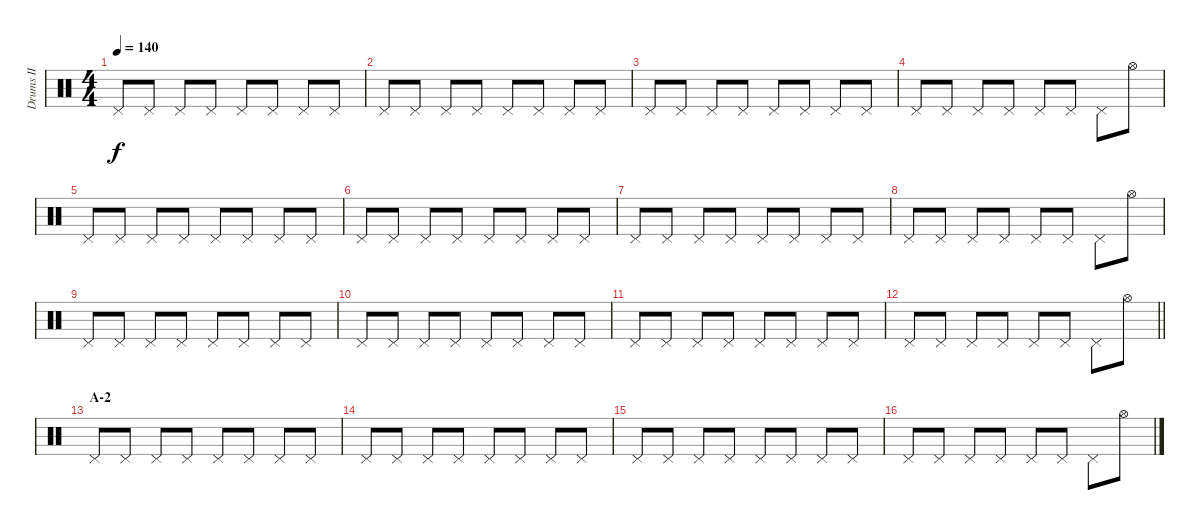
\track ("Drums II" "Drums II") {instrument percussion}
\staff {score}
\articulation defaults
\ts (4 4)
\tempo 140
\clef neutral
\ks c "Pedal Hi-Hat (hit)".8{dy f} "Pedal Hi-Hat (hit)".8 "Pedal Hi-Hat (hit)".8 "Pedal Hi-Hat (hit)".8 "Pedal Hi-Hat (hit)".8 "Pedal Hi-Hat (hit)".8 "Pedal Hi-Hat (hit)".8 "Pedal Hi-Hat (hit)".8
|
"Pedal Hi-Hat (hit)".8 "Pedal Hi-Hat (hit)".8 "Pedal Hi-Hat (hit)".8 "Pedal Hi-Hat (hit)".8 "Pedal Hi-Hat (hit)".8 "Pedal Hi-Hat (hit)".8 "Pedal Hi-Hat (hit)".8 "Pedal Hi-Hat (hit)".8 |
"Pedal Hi-Hat (hit)".8 "Pedal Hi-Hat (hit)".8 "Pedal Hi-Hat (hit)".8 "Pedal Hi-Hat (hit)".8 "Pedal Hi-Hat (hit)".8 "Pedal Hi-Hat (hit)".8 "Pedal Hi-Hat (hit)".8 "Pedal Hi-Hat (hit)".8 |
"Pedal Hi-Hat (hit)".8 "Pedal Hi-Hat (hit)".8 "Pedal Hi-Hat (hit)".8 "Pedal Hi-Hat (hit)".8 "Pedal Hi-Hat (hit)".8 "Pedal Hi-Hat (hit)".8 "Pedal Hi-Hat (hit)".8 "Hi-Hat (open)".8 |
"Pedal Hi-Hat (hit)".8 "Pedal Hi-Hat (hit)".8 "Pedal Hi-Hat (hit)".8 "Pedal Hi-Hat (hit)".8 "Pedal Hi-Hat (hit)".8 "Pedal Hi-Hat (hit)".8 "Pedal Hi-Hat (hit)".8 "Pedal Hi-Hat (hit)".8 |
"Pedal Hi-Hat (hit)".8 "Pedal Hi-Hat (hit)".8 "Pedal Hi-Hat (hit)".8 "Pedal Hi-Hat (hit)".8 "Pedal Hi-Hat (hit)".8 "Pedal Hi-Hat (hit)".8 "Pedal Hi-Hat (hit)".8 "Pedal Hi-Hat (hit)".8 |
"Pedal Hi-Hat (hit)".8 "Pedal Hi-Hat (hit)".8 "Pedal Hi-Hat (hit)".8 "Pedal Hi-Hat (hit)".8 "Pedal Hi-Hat (hit)".8 "Pedal Hi-Hat (hit)".8 "Pedal Hi-Hat (hit)".8 "Pedal Hi-Hat (hit)".8 |
"Pedal Hi-Hat (hit)".8 "Pedal Hi-Hat (hit)".8 "Pedal Hi-Hat (hit)".8 "Pedal Hi-Hat (hit)".8 "Pedal Hi-Hat (hit)".8 "Pedal Hi-Hat (hit)".8 "Pedal Hi-Hat (hit)".8 "Hi-Hat (open)".8 |
"Pedal Hi-Hat (hit)".8 "Pedal Hi-Hat (hit)".8 "Pedal Hi-Hat (hit)".8 "Pedal Hi-Hat (hit)".8 "Pedal Hi-Hat (hit)".8 "Pedal Hi-Hat (hit)".8 "Pedal Hi-Hat (hit)".8 "Pedal Hi-Hat (hit)".8 |
"Pedal Hi-Hat (hit)".8 "Pedal Hi-Hat (hit)".8 "Pedal Hi-Hat (hit)".8 "Pedal Hi-Hat (hit)".8 "Pedal Hi-Hat (hit)".8 "Pedal Hi-Hat (hit)".8 "Pedal Hi-Hat (hit)".8 "Pedal Hi-Hat (hit)".8 |
"Pedal Hi-Hat (hit)".8 "Pedal Hi-Hat (hit)".8 "Pedal Hi-Hat (hit)".8 "Pedal Hi-Hat (hit)".8 "Pedal Hi-Hat (hit)".8 "Pedal Hi-Hat (hit)".8 "Pedal Hi-Hat (hit)".8 "Pedal Hi-Hat (hit)".8 |
\barLineRight lightlight "Pedal Hi-Hat (hit)".8 "Pedal Hi-Hat (hit)".8 "Pedal Hi-Hat (hit)".8 "Pedal Hi-Hat (hit)".8 "Pedal Hi-Hat (hit)".8 "Pedal Hi-Hat (hit)".8 "Pedal Hi-Hat (hit)".8 "Hi-Hat (open)".8
|
\section ("" "A-2")
"Pedal Hi-Hat (hit)".8 "Pedal Hi-Hat (hit)".8 "Pedal Hi-Hat (hit)".8 "Pedal Hi-Hat (hit)".8 "Pedal Hi-Hat (hit)".8 "Pedal Hi-Hat (hit)".8 "Pedal Hi-Hat (hit)".8 "Pedal Hi-Hat (hit)".8 |
"Pedal Hi-Hat (hit)".8 "Pedal Hi-Hat (hit)".8 "Pedal Hi-Hat (hit)".8 "Pedal Hi-Hat (hit)".8 "Pedal Hi-Hat (hit)".8 "Pedal Hi-Hat (hit)".8 "Pedal Hi-Hat (hit)".8 "Pedal Hi-Hat (hit)".8 |
"Pedal Hi-Hat (hit)".8 "Pedal Hi-Hat (hit)".8 "Pedal Hi-Hat (hit)".8 "Pedal Hi-Hat (hit)".8 "Pedal Hi-Hat (hit)".8 "Pedal Hi-Hat (hit)".8 "Pedal Hi-Hat (hit)".8 "Pedal Hi-Hat (hit)".8 |
"Pedal Hi-Hat (hit)".8 "Pedal Hi-Hat (hit)".8 "Pedal Hi-Hat (hit)".8 "Pedal Hi-Hat (hit)".8 "Pedal Hi-Hat (hit)".8 "Pedal Hi-Hat (hit)".8 "Pedal Hi-Hat (hit)".8 "Hi-Hat (open)".8
